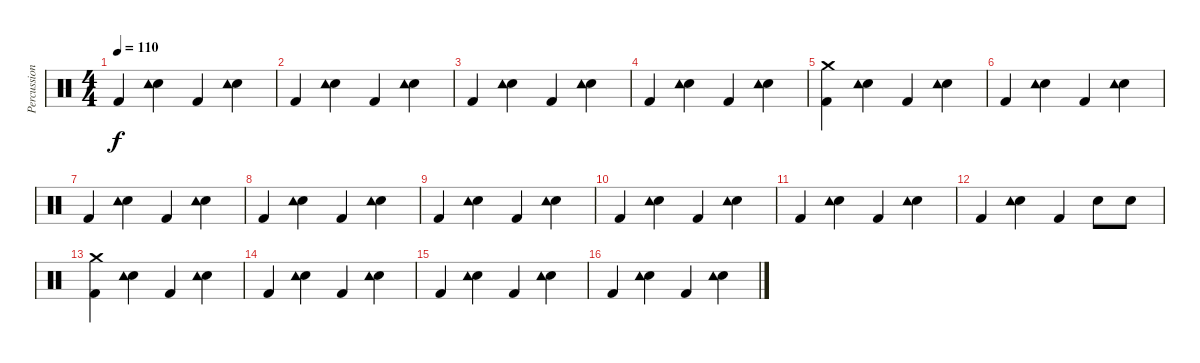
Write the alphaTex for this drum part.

\track ("Percussion" "Percussion") {instrument percussion}
\staff {score}
\articulation defaults
\ts (4 4)
\tempo 110
\clef neutral
\ks c "Kick (hit) 2".4{dy f}
("Electric Snare (hit)" "Tambourine (hit)").4 "Kick (hit) 2".4 ("Electric Snare (hit)" "Tambourine (hit)").4 |
"Kick (hit) 2".4 ("Electric Snare (hit)" "Tambourine (hit)").4 "Kick (hit) 2".4 ("Electric Snare (hit)" "Tambourine (hit)").4 |
"Kick (hit) 2".4 ("Electric Snare (hit)" "Tambourine (hit)").4 "Kick (hit) 2".4 ("Electric Snare (hit)" "Tambourine (hit)").4 |
"Kick (hit) 2".4 ("Electric Snare (hit)" "Tambourine (hit)").4 "Kick (hit) 2".4 ("Electric Snare (hit)" "Tambourine (hit)").4 |
("Kick (hit) 2" "Crash medium (hit)").4 ("Electric Snare (hit)" "Tambourine (hit)").4 "Kick (hit) 2".4 ("Electric Snare (hit)" "Tambourine (hit)").4 |
"Kick (hit) 2".4 ("Electric Snare (hit)" "Tambourine (hit)").4 "Kick (hit) 2".4 ("Electric Snare (hit)" "Tambourine (hit)").4 |
"Kick (hit) 2".4 ("Electric Snare (hit)" "Tambourine (hit)").4 "Kick (hit) 2".4 ("Electric Snare (hit)" "Tambourine (hit)").4 |
"Kick (hit) 2".4 ("Electric Snare (hit)" "Tambourine (hit)").4 "Kick (hit) 2".4 ("Electric Snare (hit)" "Tambourine (hit)").4 |
"Kick (hit) 2".4 ("Electric Snare (hit)" "Tambourine (hit)").4 "Kick (hit) 2".4 ("Electric Snare (hit)" "Tambourine (hit)").4 |
"Kick (hit) 2".4 ("Electric Snare (hit)" "Tambourine (hit)").4 "Kick (hit) 2".4 ("Electric Snare (hit)" "Tambourine (hit)").4 |
"Kick (hit) 2".4 ("Electric Snare (hit)" "Tambourine (hit)").4 "Kick (hit) 2".4 ("Electric Snare (hit)" "Tambourine (hit)").4 |
"Kick (hit) 2".4 ("Electric Snare (hit)" "Tambourine (hit)").4 "Kick (hit) 2".4 "Snare (hit) 2".8 "Snare (hit) 2".8 |
("Kick (hit) 2" "Crash medium (hit)").4 ("Electric Snare (hit)" "Tambourine (hit)").4 "Kick (hit) 2".4 ("Electric Snare (hit)" "Tambourine (hit)").4 |
"Kick (hit) 2".4 ("Electric Snare (hit)" "Tambourine (hit)").4 "Kick (hit) 2".4 ("Electric Snare (hit)" "Tambourine (hit)").4 |
"Kick (hit) 2".4 ("Electric Snare (hit)" "Tambourine (hit)").4 "Kick (hit) 2".4 ("Electric Snare (hit)" "Tambourine (hit)").4 |
"Kick (hit) 2".4 ("Electric Snare (hit)" "Tambourine (hit)").4 "Kick (hit) 2".4 ("Electric Snare (hit)" "Tambourine (hit)").4
